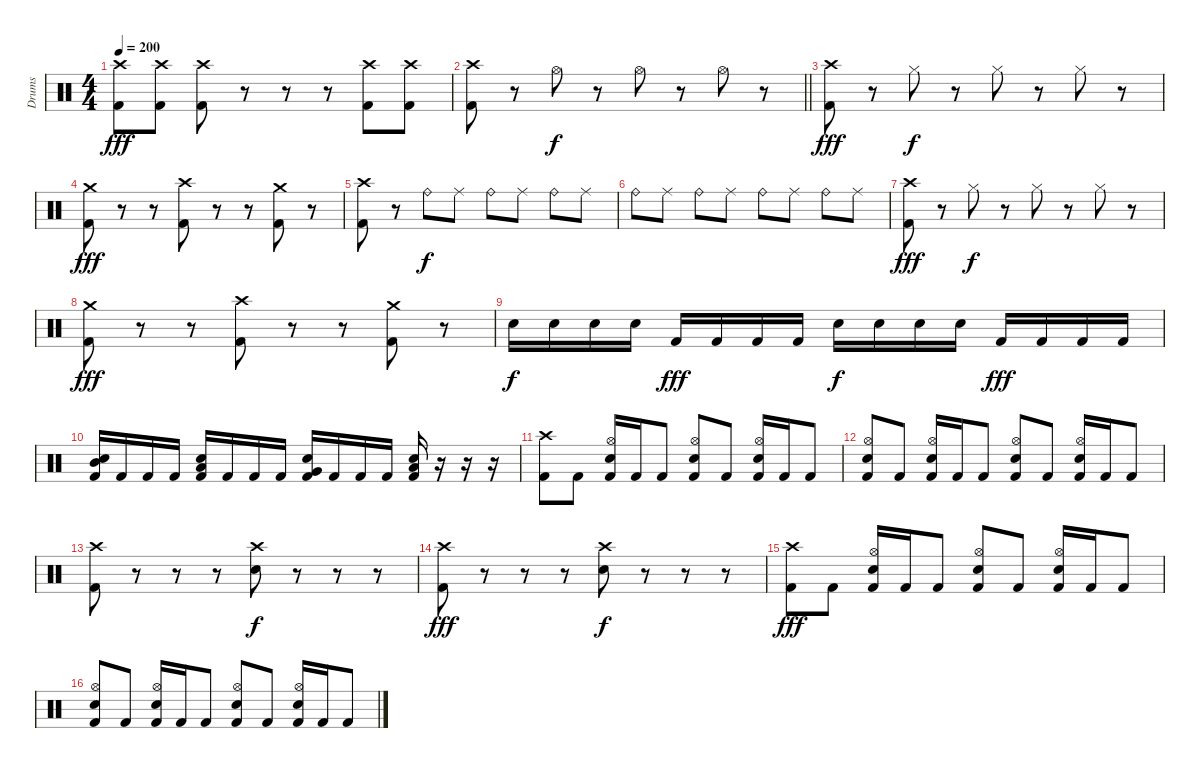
\track ("Drums" "Drums") {instrument percussion}
\staff {score}
\articulation defaults
\ts (4 4)
\tempo 200
\clef neutral
\ks c
("Crash high (hit)" "Kick (hit) 2").8{dy fff} ("Crash high (hit)" "Kick (hit) 2").8 ("Crash high (hit)" "Kick (hit) 2").8 r.8 r.8 r.8 ("Crash high (hit)" "Kick (hit) 2").8 ("Crash high (hit)" "Kick (hit) 2").8 |
\barLineRight lightlight
("Crash high (hit)" "Kick (hit) 2").8 r.8 "Hi-Hat (open)".8{dy f} r.8 "Hi-Hat (open)".8 r.8 "Hi-Hat (open)".8 r.8 |
\section ("" "")
("Crash high (hit)" "Kick (hit) 2").8{dy fff} r.8 "Hi-Hat (closed)".8{dy f} r.8 "Hi-Hat (closed)".8 r.8 "Hi-Hat (closed)".8 r.8 |
("Crash medium (hit)" "Kick (hit) 2").8{dy fff} r.8 r.8 ("Crash high (hit)" "Kick (hit) 2").8 r.8 r.8 ("Crash medium (hit)" "Kick (hit) 2").8 r.8 |
("Crash high (hit)" "Kick (hit) 2").8 r.8 "Ride (bell)".8{dy f} "Ride (middle)".8 "Ride (bell)".8 "Ride (middle)".8 "Ride (bell)".8 "Ride (middle)".8 |
"Ride (bell)".8 "Ride (middle)".8 "Ride (bell)".8 "Ride (middle)".8 "Ride (bell)".8 "Ride (middle)".8 "Ride (bell)".8 "Ride (middle)".8 |
("Crash high (hit)" "Kick (hit) 2").8{dy fff} r.8 "Hi-Hat (closed)".8{dy f} r.8 "Hi-Hat (closed)".8 r.8 "Hi-Hat (closed)".8 r.8 |
("Crash medium (hit)" "Kick (hit) 2").8{dy fff} r.8 r.8 ("Crash high (hit)" "Kick (hit) 2").8 r.8 r.8 ("Crash medium (hit)" "Kick (hit) 2").8 r.8 |
"Electric Snare (hit)".16{dy f} "Electric Snare (hit)".16 "Electric Snare (hit)".16 "Electric Snare (hit)".16 "Kick (hit) 2".16{dy fff} "Kick (hit) 2".16 "Kick (hit) 2".16 "Kick (hit) 2".16 "Electric Snare (hit)".16{dy f} "Electric Snare (hit)".16 "Electric Snare (hit)".16 "Electric Snare (hit)".16 "Kick (hit) 2".16{dy fff} "Kick (hit) 2".16 "Kick (hit) 2".16 "Kick (hit) 2".16 |
("Electric Snare (hit)" "Mid Tom (hit)" "Kick (hit) 2").16 "Kick (hit) 2".16 "Kick (hit) 2".16 "Kick (hit) 2".16 ("Electric Snare (hit)" "Low Tom (hit)" "Kick (hit) 2").16 "Kick (hit) 2".16 "Kick (hit) 2".16 "Kick (hit) 2".16 ("Electric Snare (hit)" "Very Low Tom (hit)" "Kick (hit) 2").16 "Kick (hit) 2".16 "Kick (hit) 2".16 "Kick (hit) 2".16 ("Electric Snare (hit)" "Low Floor Tom (hit)" "Kick (hit) 2").16 r.16 r.16 r.16 |
("Crash high (hit)" "Kick (hit) 2").8 "Kick (hit) 2".8 ("Hi-Hat (open)" "Electric Snare (hit)" "Kick (hit) 2").16 "Kick (hit) 2".16 "Kick (hit) 2".8 ("Hi-Hat (open)" "Electric Snare (hit)" "Kick (hit) 2").8 "Kick (hit) 2".8 ("Hi-Hat (open)" "Electric Snare (hit)" "Kick (hit) 2").16 "Kick (hit) 2".16 "Kick (hit) 2".8 |
("Hi-Hat (open)" "Electric Snare (hit)" "Kick (hit) 2").8 "Kick (hit) 2".8 ("Hi-Hat (open)" "Electric Snare (hit)" "Kick (hit) 2").16 "Kick (hit) 2".16 "Kick (hit) 2".8 ("Hi-Hat (open)" "Electric Snare (hit)" "Kick (hit) 2").8 "Kick (hit) 2".8 ("Hi-Hat (open)" "Electric Snare (hit)" "Kick (hit) 2").16 "Kick (hit) 2".16 "Kick (hit) 2".8 |
("Crash high (hit)" "Kick (hit) 2").8 r.8 r.8 r.8 ("Crash high (hit)" "Electric Snare (hit)").8{dy f} r.8 r.8 r.8 |
("Crash high (hit)" "Kick (hit) 2").8{dy fff} r.8 r.8 r.8 ("Crash high (hit)" "Electric Snare (hit)").8{dy f} r.8 r.8 r.8 |
("Crash high (hit)" "Kick (hit) 2").8{dy fff} "Kick (hit) 2".8 ("Hi-Hat (open)" "Electric Snare (hit)" "Kick (hit) 2").16 "Kick (hit) 2".16 "Kick (hit) 2".8 ("Hi-Hat (open)" "Electric Snare (hit)" "Kick (hit) 2").8 "Kick (hit) 2".8 ("Hi-Hat (open)" "Electric Snare (hit)" "Kick (hit) 2").16 "Kick (hit) 2".16 "Kick (hit) 2".8 |
("Hi-Hat (open)" "Electric Snare (hit)" "Kick (hit) 2").8 "Kick (hit) 2".8 ("Hi-Hat (open)" "Electric Snare (hit)" "Kick (hit) 2").16 "Kick (hit) 2".16 "Kick (hit) 2".8 ("Hi-Hat (open)" "Electric Snare (hit)" "Kick (hit) 2").8 "Kick (hit) 2".8 ("Hi-Hat (open)" "Electric Snare (hit)" "Kick (hit) 2").16 "Kick (hit) 2".16 "Kick (hit) 2".8
